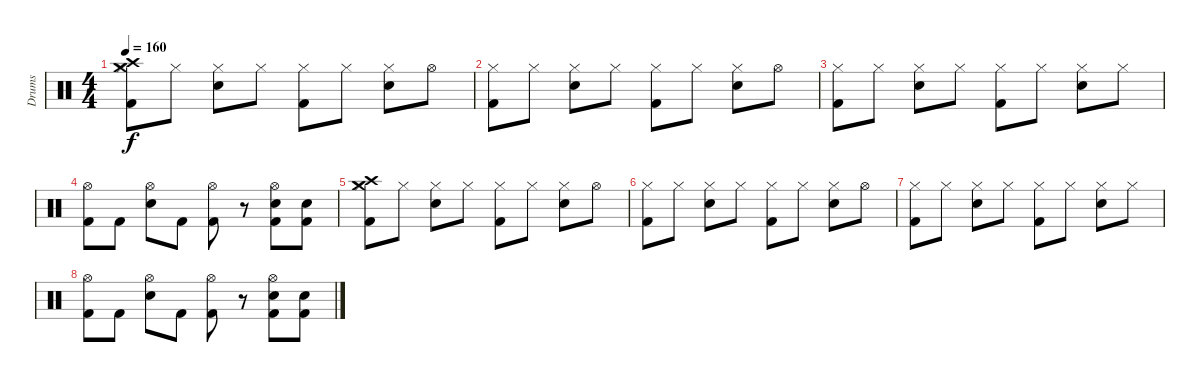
\track ("Drums" "Drums") {instrument percussion}
\staff {score}
\articulation defaults
\ts (4 4)
\tempo 160
\clef neutral
\ks c
("Crash medium (hit)" "Crash high (hit)" "Hi-Hat (closed)" "Kick (hit) 2").8{dy f} "Hi-Hat (closed)".8 ("Hi-Hat (closed)" "Electric Snare (hit)").8 "Hi-Hat (closed)".8 ("Hi-Hat (closed)" "Kick (hit) 2").8 "Hi-Hat (closed)".8 ("Hi-Hat (closed)" "Electric Snare (hit)").8 "Hi-Hat (open)".8 |
("Hi-Hat (closed)" "Kick (hit) 2").8 "Hi-Hat (closed)".8 ("Hi-Hat (closed)" "Electric Snare (hit)").8 "Hi-Hat (closed)".8 ("Hi-Hat (closed)" "Kick (hit) 2").8 "Hi-Hat (closed)".8 ("Hi-Hat (closed)" "Electric Snare (hit)").8 "Hi-Hat (open)".8 |
("Hi-Hat (closed)" "Kick (hit) 2").8 "Hi-Hat (closed)".8 ("Hi-Hat (closed)" "Electric Snare (hit)").8 "Hi-Hat (closed)".8 ("Hi-Hat (closed)" "Kick (hit) 2").8 "Hi-Hat (closed)".8 ("Hi-Hat (closed)" "Electric Snare (hit)").8 "Hi-Hat (closed)".8 |
("Hi-Hat (open)" "Kick (hit) 2").8 "Kick (hit) 2".8 ("Hi-Hat (open)" "Electric Snare (hit)").8 "Kick (hit) 2".8 ("Hi-Hat (open)" "Kick (hit) 2").8 r.8 ("Hi-Hat (open)" "Electric Snare (hit)" "Kick (hit) 2").8 ("Electric Snare (hit)" "Kick (hit) 2").8 |
("Crash medium (hit)" "Crash high (hit)" "Hi-Hat (closed)" "Kick (hit) 2").8 "Hi-Hat (closed)".8 ("Hi-Hat (closed)" "Electric Snare (hit)").8 "Hi-Hat (closed)".8 ("Hi-Hat (closed)" "Kick (hit) 2").8 "Hi-Hat (closed)".8 ("Hi-Hat (closed)" "Electric Snare (hit)").8 "Hi-Hat (open)".8 |
("Hi-Hat (closed)" "Kick (hit) 2").8 "Hi-Hat (closed)".8 ("Hi-Hat (closed)" "Electric Snare (hit)").8 "Hi-Hat (closed)".8 ("Hi-Hat (closed)" "Kick (hit) 2").8 "Hi-Hat (closed)".8 ("Hi-Hat (closed)" "Electric Snare (hit)").8 "Hi-Hat (open)".8 |
("Hi-Hat (closed)" "Kick (hit) 2").8 "Hi-Hat (closed)".8 ("Hi-Hat (closed)" "Electric Snare (hit)").8 "Hi-Hat (closed)".8 ("Hi-Hat (closed)" "Kick (hit) 2").8 "Hi-Hat (closed)".8 ("Hi-Hat (closed)" "Electric Snare (hit)").8 "Hi-Hat (closed)".8 |
("Hi-Hat (open)" "Kick (hit) 2").8 "Kick (hit) 2".8 ("Hi-Hat (open)" "Electric Snare (hit)").8 "Kick (hit) 2".8 ("Hi-Hat (open)" "Kick (hit) 2").8 r.8 ("Hi-Hat (open)" "Electric Snare (hit)" "Kick (hit) 2").8 ("Electric Snare (hit)" "Kick (hit) 2").8
